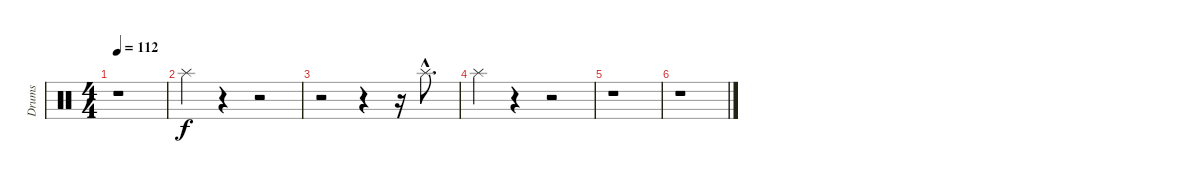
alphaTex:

\track ("Drums" "Drums") {instrument percussion}
\staff {score}
\articulation defaults
\ts (4 4)
\tempo 112
\clef neutral
\ks c
r.1{dy f} |
"Splash (hit)".4 r.4 r.2 |
r.2 r.4 r.16 "Splash (hit)"{hac}.8{d} |
"Splash (hit)".4 r.4 r.2 |
r.1 |
r.1
